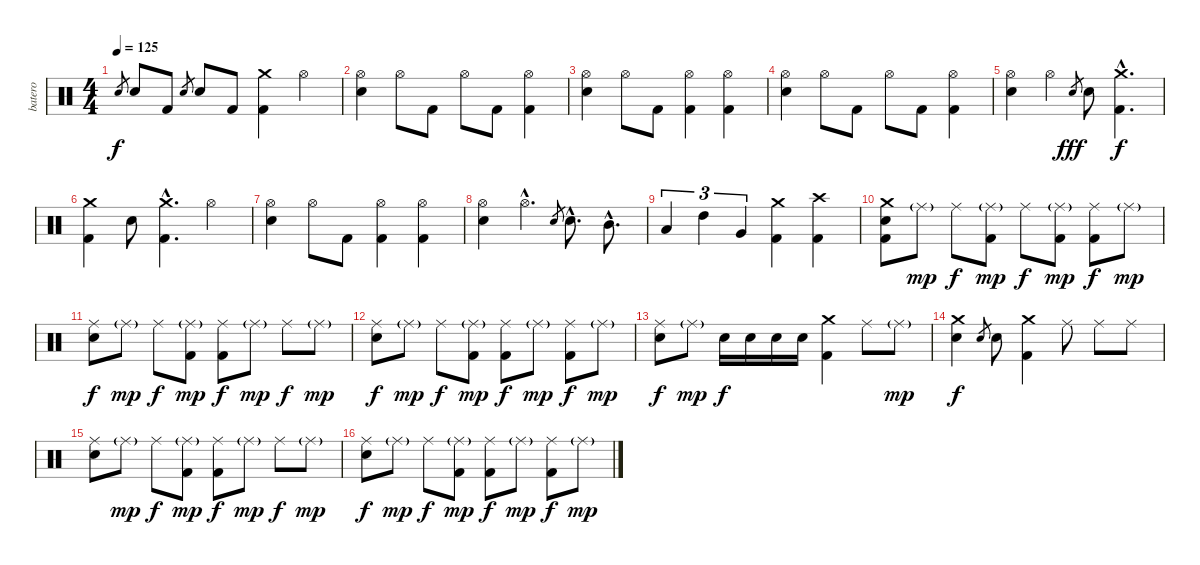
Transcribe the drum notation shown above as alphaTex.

\track ("batero" "batero") {instrument percussion}
\staff {score}
\articulation defaults
\ts (4 4)
\tempo 125
\clef neutral
\ks c "Snare (hit) 2".8{gr dy f} "Snare (hit) 2".8 "Kick (hit) 2".8 "Snare (hit) 2".8{gr} "Snare (hit) 2".8 "Kick (hit) 2".8
("Crash medium (hit)" "Kick (hit) 2").4 "Hi-Hat (open)".4 |
("Hi-Hat (open)" "Snare (hit) 2").4 "Hi-Hat (open)".8 "Kick (hit) 2".8 "Hi-Hat (open)".8 "Kick (hit) 2".8 ("Hi-Hat (open)" "Kick (hit) 2").4 |
("Hi-Hat (open)" "Snare (hit) 2").4 "Hi-Hat (open)".8 "Kick (hit) 2".8 ("Hi-Hat (open)" "Kick (hit) 2").4 ("Hi-Hat (open)" "Kick (hit) 2").4 |
("Hi-Hat (open)" "Snare (hit) 2").4 "Hi-Hat (open)".8 "Kick (hit) 2".8 "Hi-Hat (open)".8 "Kick (hit) 2".8 ("Hi-Hat (open)" "Kick (hit) 2").4 |
("Hi-Hat (open)" "Snare (hit) 2").4 "Hi-Hat (open)".4 "Snare (hit) 2".8{gr dy fff} "Snare (hit) 2".8 ("Crash medium (hit)"{hac} "Kick (hit) 2"{hac}).4{d dy f} |
("Crash medium (hit)" "Kick (hit) 2").4 "Snare (hit) 2".8 ("Crash medium (hit)"{hac} "Kick (hit) 2"{hac}).4{d} "Hi-Hat (open)".4 |
("Hi-Hat (open)" "Snare (hit) 2").4 "Hi-Hat (open)".8 "Kick (hit) 2".8 ("Hi-Hat (open)" "Kick (hit) 2").4 ("Hi-Hat (open)" "Kick (hit) 2").4 |
("Hi-Hat (open)" "Snare (hit) 2").4 "Hi-Hat (open)"{hac}.4{d} "Snare (hit) 2".8{gr} "Snare (hit) 2"{hac}.8{d} "Mid Tom (hit)"{hac}.8{d} |
"Low Tom (hit)".4{tu (3 2)} "High Tom (hit)".4{tu (3 2)} "Very Low Tom (hit)".4{tu (3 2)} ("Crash medium (hit)" "Kick (hit) 2").4 ("Crash high (hit)" "Kick (hit) 2").4 |
("Crash medium (hit)" "Snare (hit) 2" "Kick (hit) 2").8 "Ride (middle)"{g}.8{dy mp} "Ride (middle)".8{dy f} ("Ride (middle)"{g} "Kick (hit) 2").8{dy mp} "Ride (middle)".8{dy f} ("Ride (middle)"{g} "Kick (hit) 2").8{dy mp} ("Ride (middle)" "Kick (hit) 2").8{dy f} "Ride (middle)"{g}.8{dy mp} |
("Ride (middle)" "Snare (hit) 2").8{dy f} "Ride (middle)"{g}.8{dy mp} "Ride (middle)".8{dy f} ("Ride (middle)"{g} "Kick (hit) 2").8{dy mp} ("Ride (middle)" "Kick (hit) 2").8{dy f} "Ride (middle)"{g}.8{dy mp} "Ride (middle)".8{dy f} "Ride (middle)"{g}.8{dy mp} |
("Ride (middle)" "Snare (hit) 2").8{dy f} "Ride (middle)"{g}.8{dy mp} "Ride (middle)".8{dy f} ("Ride (middle)"{g} "Kick (hit) 2").8{dy mp} ("Ride (middle)" "Kick (hit) 2").8{dy f} "Ride (middle)"{g}.8{dy mp} ("Ride (middle)" "Kick (hit) 2").8{dy f} "Ride (middle)"{g}.8{dy mp} |
("Ride (middle)" "Snare (hit) 2").8{dy f} "Ride (middle)"{g}.8{dy mp} "Snare (hit) 2".16{dy f} "Snare (hit) 2".16 "Snare (hit) 2".16 "Snare (hit) 2".16 ("Crash medium (hit)" "Kick (hit) 2").4 "Ride (middle)".8 "Ride (middle)"{g}.8{dy mp} |
("Crash medium (hit)" "Snare (hit) 2").4{dy f} "Snare (hit) 2".8{gr} "Snare (hit) 2".8 ("Crash medium (hit)" "Kick (hit) 2").4 "Ride (middle)".8 "Ride (middle)".8 "Ride (middle)".8 |
("Ride (middle)" "Snare (hit) 2").8 "Ride (middle)"{g}.8{dy mp} "Ride (middle)".8{dy f} ("Ride (middle)"{g} "Kick (hit) 2").8{dy mp} ("Ride (middle)" "Kick (hit) 2").8{dy f} "Ride (middle)"{g}.8{dy mp} "Ride (middle)".8{dy f} "Ride (middle)"{g}.8{dy mp} |
("Ride (middle)" "Snare (hit) 2").8{dy f} "Ride (middle)"{g}.8{dy mp} "Ride (middle)".8{dy f} ("Ride (middle)"{g} "Kick (hit) 2").8{dy mp} ("Ride (middle)" "Kick (hit) 2").8{dy f} "Ride (middle)"{g}.8{dy mp} ("Ride (middle)" "Kick (hit) 2").8{dy f} "Ride (middle)"{g}.8{dy mp}
